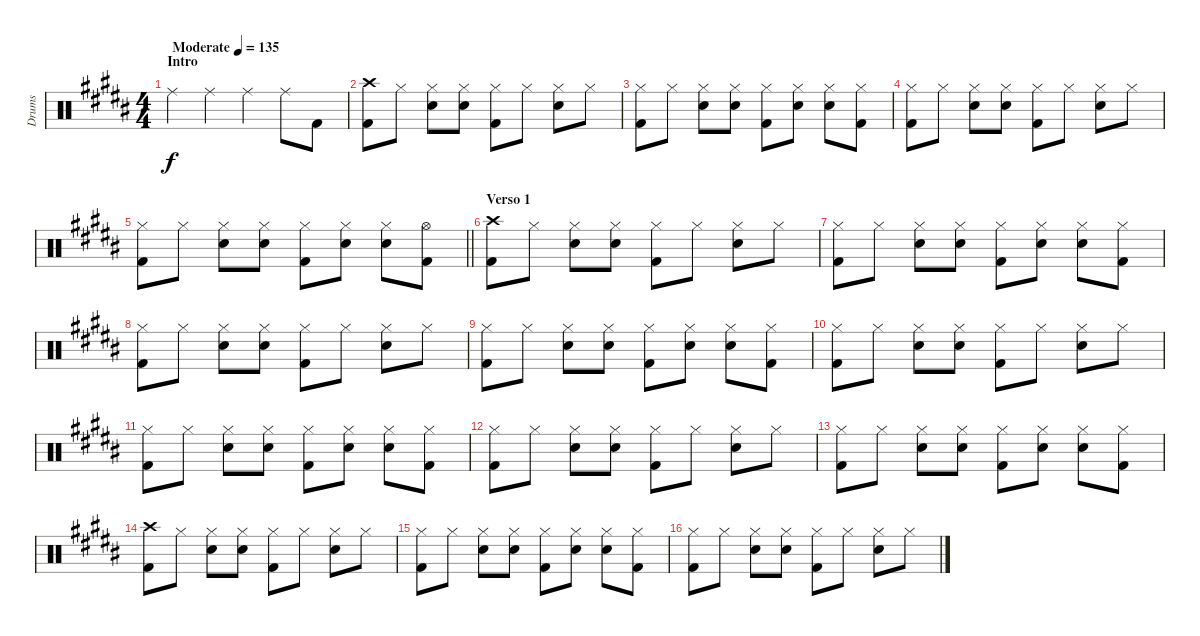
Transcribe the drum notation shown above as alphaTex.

\track ("Drums" "Drums") {instrument percussion}
\staff {score}
\articulation defaults
\ts (4 4)
\section ("" "Intro")
\tempo (135 "Moderate")
\clef neutral
\ks b "Ride (middle)".4{dy f} "Ride (middle)".4 "Ride (middle)".4 "Ride (middle)".8 "Kick (hit) 2".8
|
("Crash high (hit)" "Kick (hit) 2").8 "Hi-Hat (closed)".8 ("Hi-Hat (closed)" "Snare (hit) 2").8 ("Hi-Hat (closed)" "Snare (hit) 2").8 ("Hi-Hat (closed)" "Kick (hit) 2").8 "Hi-Hat (closed)".8 ("Hi-Hat (closed)" "Snare (hit) 2").8 "Hi-Hat (closed)".8 |
("Hi-Hat (closed)" "Kick (hit) 2").8 "Hi-Hat (closed)".8 ("Hi-Hat (closed)" "Snare (hit) 2").8 ("Hi-Hat (closed)" "Snare (hit) 2").8 ("Hi-Hat (closed)" "Kick (hit) 2").8 ("Hi-Hat (closed)" "Snare (hit) 2").8 ("Hi-Hat (closed)" "Snare (hit) 2").8 ("Hi-Hat (closed)" "Kick (hit) 2").8 |
("Hi-Hat (closed)" "Kick (hit) 2").8 "Hi-Hat (closed)".8 ("Hi-Hat (closed)" "Snare (hit) 2").8 ("Hi-Hat (closed)" "Snare (hit) 2").8 ("Hi-Hat (closed)" "Kick (hit) 2").8 "Hi-Hat (closed)".8 ("Hi-Hat (closed)" "Snare (hit) 2").8 "Hi-Hat (closed)".8 |
\barLineRight lightlight
("Hi-Hat (closed)" "Kick (hit) 2").8 "Hi-Hat (closed)".8 ("Hi-Hat (closed)" "Snare (hit) 2").8 ("Hi-Hat (closed)" "Snare (hit) 2").8 ("Hi-Hat (closed)" "Kick (hit) 2").8 ("Hi-Hat (closed)" "Snare (hit) 2").8 ("Hi-Hat (closed)" "Snare (hit) 2").8 ("Hi-Hat (open)" "Kick (hit) 2").8 |
\section ("" "Verso 1")
("Crash high (hit)" "Kick (hit) 2").8 "Hi-Hat (closed)".8 ("Hi-Hat (closed)" "Snare (hit) 2").8 ("Hi-Hat (closed)" "Snare (hit) 2").8 ("Hi-Hat (closed)" "Kick (hit) 2").8 "Hi-Hat (closed)".8 ("Hi-Hat (closed)" "Snare (hit) 2").8 "Hi-Hat (closed)".8 |
("Hi-Hat (closed)" "Kick (hit) 2").8 "Hi-Hat (closed)".8 ("Hi-Hat (closed)" "Snare (hit) 2").8 ("Hi-Hat (closed)" "Snare (hit) 2").8 ("Hi-Hat (closed)" "Kick (hit) 2").8 ("Hi-Hat (closed)" "Snare (hit) 2").8 ("Hi-Hat (closed)" "Snare (hit) 2").8 ("Hi-Hat (closed)" "Kick (hit) 2").8 |
("Hi-Hat (closed)" "Kick (hit) 2").8 "Hi-Hat (closed)".8 ("Hi-Hat (closed)" "Snare (hit) 2").8 ("Hi-Hat (closed)" "Snare (hit) 2").8 ("Hi-Hat (closed)" "Kick (hit) 2").8 "Hi-Hat (closed)".8 ("Hi-Hat (closed)" "Snare (hit) 2").8 "Hi-Hat (closed)".8 |
("Hi-Hat (closed)" "Kick (hit) 2").8 "Hi-Hat (closed)".8 ("Hi-Hat (closed)" "Snare (hit) 2").8 ("Hi-Hat (closed)" "Snare (hit) 2").8 ("Hi-Hat (closed)" "Kick (hit) 2").8 ("Hi-Hat (closed)" "Snare (hit) 2").8 ("Hi-Hat (closed)" "Snare (hit) 2").8 ("Hi-Hat (closed)" "Kick (hit) 2").8 |
("Hi-Hat (closed)" "Kick (hit) 2").8 "Hi-Hat (closed)".8 ("Hi-Hat (closed)" "Snare (hit) 2").8 ("Hi-Hat (closed)" "Snare (hit) 2").8 ("Hi-Hat (closed)" "Kick (hit) 2").8 "Hi-Hat (closed)".8 ("Hi-Hat (closed)" "Snare (hit) 2").8 "Hi-Hat (closed)".8 |
("Hi-Hat (closed)" "Kick (hit) 2").8 "Hi-Hat (closed)".8 ("Hi-Hat (closed)" "Snare (hit) 2").8 ("Hi-Hat (closed)" "Snare (hit) 2").8 ("Hi-Hat (closed)" "Kick (hit) 2").8 ("Hi-Hat (closed)" "Snare (hit) 2").8 ("Hi-Hat (closed)" "Snare (hit) 2").8 ("Hi-Hat (closed)" "Kick (hit) 2").8 |
("Hi-Hat (closed)" "Kick (hit) 2").8 "Hi-Hat (closed)".8 ("Hi-Hat (closed)" "Snare (hit) 2").8 ("Hi-Hat (closed)" "Snare (hit) 2").8 ("Hi-Hat (closed)" "Kick (hit) 2").8 "Hi-Hat (closed)".8 ("Hi-Hat (closed)" "Snare (hit) 2").8 "Hi-Hat (closed)".8 |
("Hi-Hat (closed)" "Kick (hit) 2").8 "Hi-Hat (closed)".8 ("Hi-Hat (closed)" "Snare (hit) 2").8 ("Hi-Hat (closed)" "Snare (hit) 2").8 ("Hi-Hat (closed)" "Kick (hit) 2").8 ("Hi-Hat (closed)" "Snare (hit) 2").8 ("Hi-Hat (closed)" "Snare (hit) 2").8 ("Hi-Hat (closed)" "Kick (hit) 2").8 |
("Crash high (hit)" "Kick (hit) 2").8 "Hi-Hat (closed)".8 ("Hi-Hat (closed)" "Snare (hit) 2").8 ("Hi-Hat (closed)" "Snare (hit) 2").8 ("Hi-Hat (closed)" "Kick (hit) 2").8 "Hi-Hat (closed)".8 ("Hi-Hat (closed)" "Snare (hit) 2").8 "Hi-Hat (closed)".8 |
("Hi-Hat (closed)" "Kick (hit) 2").8 "Hi-Hat (closed)".8 ("Hi-Hat (closed)" "Snare (hit) 2").8 ("Hi-Hat (closed)" "Snare (hit) 2").8 ("Hi-Hat (closed)" "Kick (hit) 2").8 ("Hi-Hat (closed)" "Snare (hit) 2").8 ("Hi-Hat (closed)" "Snare (hit) 2").8 ("Hi-Hat (closed)" "Kick (hit) 2").8 |
("Hi-Hat (closed)" "Kick (hit) 2").8 "Hi-Hat (closed)".8 ("Hi-Hat (closed)" "Snare (hit) 2").8 ("Hi-Hat (closed)" "Snare (hit) 2").8 ("Hi-Hat (closed)" "Kick (hit) 2").8 "Hi-Hat (closed)".8 ("Hi-Hat (closed)" "Snare (hit) 2").8 "Hi-Hat (closed)".8
